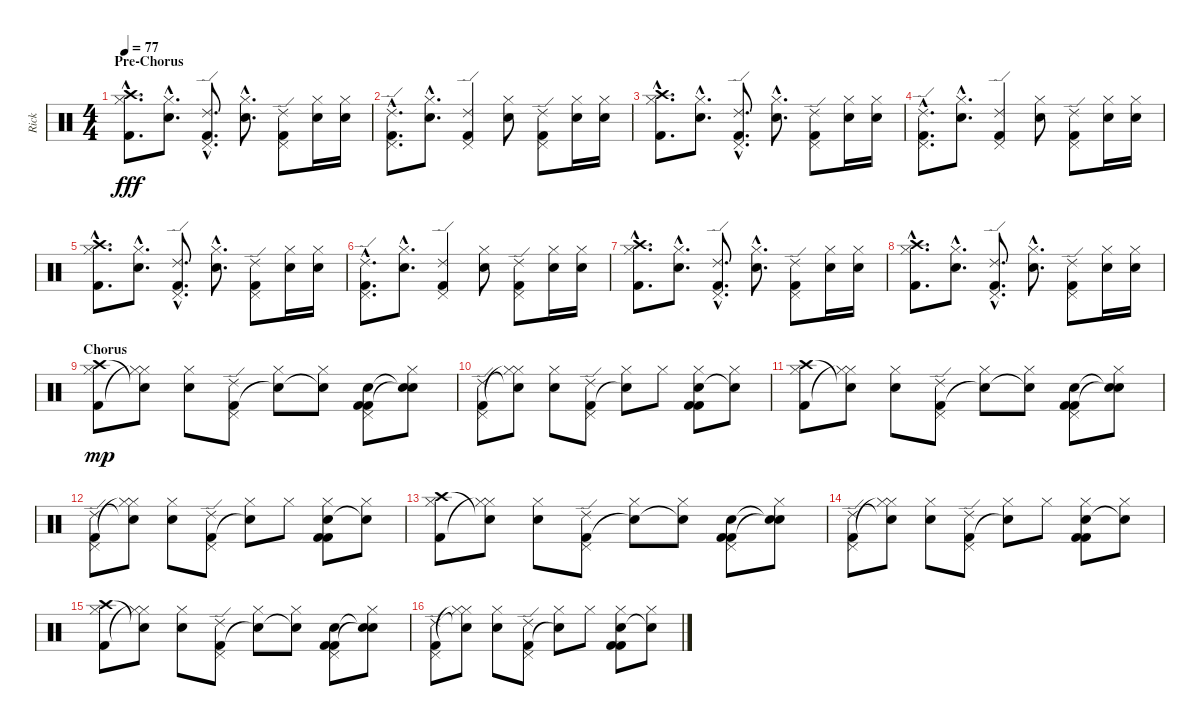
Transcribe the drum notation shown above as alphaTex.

\track ("Rick" "Rick") {instrument percussion}
\staff {score}
\articulation defaults
\ts (4 4)
\section ("" "Pre-Chorus")
\tempo 77
\clef neutral
\ks c
("Hi-Hat (closed)"{hac} "Kick (hit) 2"{hac} "Crash high (hit)"{hac}).8{d dy fff} ("Hi-Hat (closed)"{hac} "Electric Snare (hit)"{hac}).8{d} ("Pedal Hi-Hat (hit)"{hac} "Kick (hit) 2"{hac} "Ride (edge) 2"{hac}).8{d} ("Hi-Hat (closed)"{hac} "Electric Snare (hit)"{hac}).8{d} ("Pedal Hi-Hat (hit)" "Kick (hit) 2" "Ride (edge) 2").8 ("Hi-Hat (closed)" "Electric Snare (hit)").16 ("Hi-Hat (closed)" "Electric Snare (hit)").16 |
("Pedal Hi-Hat (hit)"{hac} "Kick (hit) 2"{hac} "Ride (edge) 2"{hac}).8{d} ("Hi-Hat (closed)"{hac} "Electric Snare (hit)"{hac}).8{d} ("Pedal Hi-Hat (hit)" "Kick (hit) 2" "Ride (edge) 2").4 ("Hi-Hat (closed)" "Electric Snare (hit)").8 ("Pedal Hi-Hat (hit)" "Kick (hit) 2" "Ride (edge) 2").8 ("Hi-Hat (closed)" "Electric Snare (hit)").16 ("Hi-Hat (closed)" "Electric Snare (hit)").16 |
("Hi-Hat (closed)"{hac} "Kick (hit) 2"{hac} "Crash high (hit)"{hac}).8{d} ("Hi-Hat (closed)"{hac} "Electric Snare (hit)"{hac}).8{d} ("Pedal Hi-Hat (hit)"{hac} "Kick (hit) 2"{hac} "Ride (edge) 2"{hac}).8{d} ("Hi-Hat (closed)"{hac} "Electric Snare (hit)"{hac}).8{d} ("Pedal Hi-Hat (hit)" "Kick (hit) 2" "Ride (edge) 2").8 ("Hi-Hat (closed)" "Electric Snare (hit)").16 ("Hi-Hat (closed)" "Electric Snare (hit)").16 |
("Pedal Hi-Hat (hit)"{hac} "Kick (hit) 2"{hac} "Ride (edge) 2"{hac}).8{d} ("Hi-Hat (closed)"{hac} "Electric Snare (hit)"{hac}).8{d} ("Pedal Hi-Hat (hit)" "Kick (hit) 2" "Ride (edge) 2").4 ("Hi-Hat (closed)" "Electric Snare (hit)").8 ("Pedal Hi-Hat (hit)" "Kick (hit) 2" "Ride (edge) 2").8 ("Hi-Hat (closed)" "Electric Snare (hit)").16 ("Hi-Hat (closed)" "Electric Snare (hit)").16 |
("Hi-Hat (closed)"{hac} "Kick (hit) 2"{hac} "Crash high (hit)"{hac}).8{d} ("Hi-Hat (closed)"{hac} "Electric Snare (hit)"{hac}).8{d} ("Pedal Hi-Hat (hit)"{hac} "Kick (hit) 2"{hac} "Ride (edge) 2"{hac}).8{d} ("Hi-Hat (closed)"{hac} "Electric Snare (hit)"{hac}).8{d} ("Pedal Hi-Hat (hit)" "Kick (hit) 2" "Ride (edge) 2").8 ("Hi-Hat (closed)" "Electric Snare (hit)").16 ("Hi-Hat (closed)" "Electric Snare (hit)").16 |
("Pedal Hi-Hat (hit)"{hac} "Kick (hit) 2"{hac} "Ride (edge) 2"{hac}).8{d} ("Hi-Hat (closed)"{hac} "Electric Snare (hit)"{hac}).8{d} ("Pedal Hi-Hat (hit)" "Kick (hit) 2" "Ride (edge) 2").4 ("Hi-Hat (closed)" "Electric Snare (hit)").8 ("Pedal Hi-Hat (hit)" "Kick (hit) 2" "Ride (edge) 2").8 ("Hi-Hat (closed)" "Electric Snare (hit)").16 ("Hi-Hat (closed)" "Electric Snare (hit)").16 |
("Hi-Hat (closed)"{hac} "Kick (hit) 2"{hac} "Crash high (hit)"{hac}).8{d} ("Hi-Hat (closed)"{hac} "Electric Snare (hit)"{hac}).8{d} ("Pedal Hi-Hat (hit)"{hac} "Kick (hit) 2"{hac} "Ride (edge) 2"{hac}).8{d} ("Hi-Hat (closed)"{hac} "Electric Snare (hit)"{hac}).8{d} ("Pedal Hi-Hat (hit)" "Kick (hit) 2" "Ride (edge) 2").8 ("Hi-Hat (closed)" "Electric Snare (hit)").16 ("Hi-Hat (closed)" "Electric Snare (hit)").16 |
("Hi-Hat (closed)"{hac} "Kick (hit) 2"{hac} "Crash high (hit)"{hac}).8{d} ("Hi-Hat (closed)"{hac} "Electric Snare (hit)"{hac}).8{d} ("Pedal Hi-Hat (hit)"{hac} "Kick (hit) 2"{hac} "Ride (edge) 2"{hac}).8{d} ("Hi-Hat (closed)"{hac} "Electric Snare (hit)"{hac}).8{d} ("Pedal Hi-Hat (hit)" "Kick (hit) 2" "Ride (edge) 2").8 ("Hi-Hat (closed)" "Electric Snare (hit)").16 ("Hi-Hat (closed)" "Electric Snare (hit)").16 |
\section ("" "Chorus")
("Hi-Hat (closed)" "Kick (hit) 2" "Crash high (hit)").8{dy mp} ("Hi-Hat (closed)" "Hi-Hat (closed)"{t} "Snare (hit)"{t}).8 ("Hi-Hat (closed)" "Electric Snare (hit)").8 ("Pedal Hi-Hat (hit)" "Kick (hit) 2" "Ride (edge) 2").8 ("Hi-Hat (closed)" "Snare (hit)"{t}).8 ("Hi-Hat (closed)" "Snare (hit)"{t}).8 ("Pedal Hi-Hat (hit)" "Electric Snare (hit)" "Kick (hit) 2" "Kick (hit) 2").8 ("Hi-Hat (closed)" "Snare (hit)"{t} "Snare (hit)"{t}).8 |
("Pedal Hi-Hat (hit)" "Kick (hit) 2" "Ride (edge) 2").8 ("Hi-Hat (closed)" "Hi-Hat (closed)"{t} "Snare (hit)"{t}).8 ("Hi-Hat (closed)" "Electric Snare (hit)").8 ("Pedal Hi-Hat (hit)" "Kick (hit) 2" "Ride (edge) 2").8 ("Hi-Hat (closed)" "Snare (hit)"{t}).8 "Hi-Hat (closed)".8 ("Hi-Hat (closed)" "Electric Snare (hit)" "Kick (hit) 2" "Kick (hit) 2").8 ("Hi-Hat (closed)" "Snare (hit)"{t}).8 |
("Hi-Hat (closed)" "Kick (hit) 2" "Crash high (hit)").8 ("Hi-Hat (closed)" "Hi-Hat (closed)"{t} "Snare (hit)"{t}).8 ("Hi-Hat (closed)" "Electric Snare (hit)").8 ("Pedal Hi-Hat (hit)" "Kick (hit) 2" "Ride (edge) 2").8 ("Hi-Hat (closed)" "Snare (hit)"{t}).8 ("Hi-Hat (closed)" "Snare (hit)"{t}).8 ("Pedal Hi-Hat (hit)" "Electric Snare (hit)" "Kick (hit) 2" "Kick (hit) 2").8 ("Hi-Hat (closed)" "Snare (hit)"{t} "Snare (hit)"{t}).8 |
("Pedal Hi-Hat (hit)" "Kick (hit) 2" "Ride (edge) 2").8 ("Hi-Hat (closed)" "Hi-Hat (closed)"{t} "Snare (hit)"{t}).8 ("Hi-Hat (closed)" "Electric Snare (hit)").8 ("Pedal Hi-Hat (hit)" "Kick (hit) 2" "Ride (edge) 2").8 ("Hi-Hat (closed)" "Snare (hit)"{t}).8 "Hi-Hat (closed)".8 ("Hi-Hat (closed)" "Electric Snare (hit)" "Kick (hit) 2" "Kick (hit) 2").8 ("Hi-Hat (closed)" "Snare (hit)"{t}).8 |
("Hi-Hat (closed)" "Kick (hit) 2" "Crash high (hit)").8 ("Hi-Hat (closed)" "Hi-Hat (closed)"{t} "Snare (hit)"{t}).8 ("Hi-Hat (closed)" "Electric Snare (hit)").8 ("Pedal Hi-Hat (hit)" "Kick (hit) 2" "Ride (edge) 2").8 ("Hi-Hat (closed)" "Snare (hit)"{t}).8 ("Hi-Hat (closed)" "Snare (hit)"{t}).8 ("Pedal Hi-Hat (hit)" "Electric Snare (hit)" "Kick (hit) 2" "Kick (hit) 2").8 ("Hi-Hat (closed)" "Snare (hit)"{t} "Snare (hit)"{t}).8 |
("Pedal Hi-Hat (hit)" "Kick (hit) 2" "Ride (edge) 2").8 ("Hi-Hat (closed)" "Hi-Hat (closed)"{t} "Snare (hit)"{t}).8 ("Hi-Hat (closed)" "Electric Snare (hit)").8 ("Pedal Hi-Hat (hit)" "Kick (hit) 2" "Ride (edge) 2").8 ("Hi-Hat (closed)" "Snare (hit)"{t}).8 "Hi-Hat (closed)".8 ("Hi-Hat (closed)" "Electric Snare (hit)" "Kick (hit) 2" "Kick (hit) 2").8 ("Hi-Hat (closed)" "Snare (hit)"{t}).8 |
("Hi-Hat (closed)" "Kick (hit) 2" "Crash high (hit)").8 ("Hi-Hat (closed)" "Hi-Hat (closed)"{t} "Snare (hit)"{t}).8 ("Hi-Hat (closed)" "Electric Snare (hit)").8 ("Pedal Hi-Hat (hit)" "Kick (hit) 2" "Ride (edge) 2").8 ("Hi-Hat (closed)" "Snare (hit)"{t}).8 ("Hi-Hat (closed)" "Snare (hit)"{t}).8 ("Pedal Hi-Hat (hit)" "Electric Snare (hit)" "Kick (hit) 2" "Kick (hit) 2").8 ("Hi-Hat (closed)" "Snare (hit)"{t} "Snare (hit)"{t}).8 |
("Pedal Hi-Hat (hit)" "Kick (hit) 2" "Ride (edge) 2").8 ("Hi-Hat (closed)" "Hi-Hat (closed)"{t} "Snare (hit)"{t}).8 ("Hi-Hat (closed)" "Electric Snare (hit)").8 ("Pedal Hi-Hat (hit)" "Kick (hit) 2" "Ride (edge) 2").8 ("Hi-Hat (closed)" "Snare (hit)"{t}).8 "Hi-Hat (closed)".8 ("Hi-Hat (closed)" "Electric Snare (hit)" "Kick (hit) 2" "Kick (hit) 2").8 ("Hi-Hat (closed)" "Snare (hit)"{t}).8
